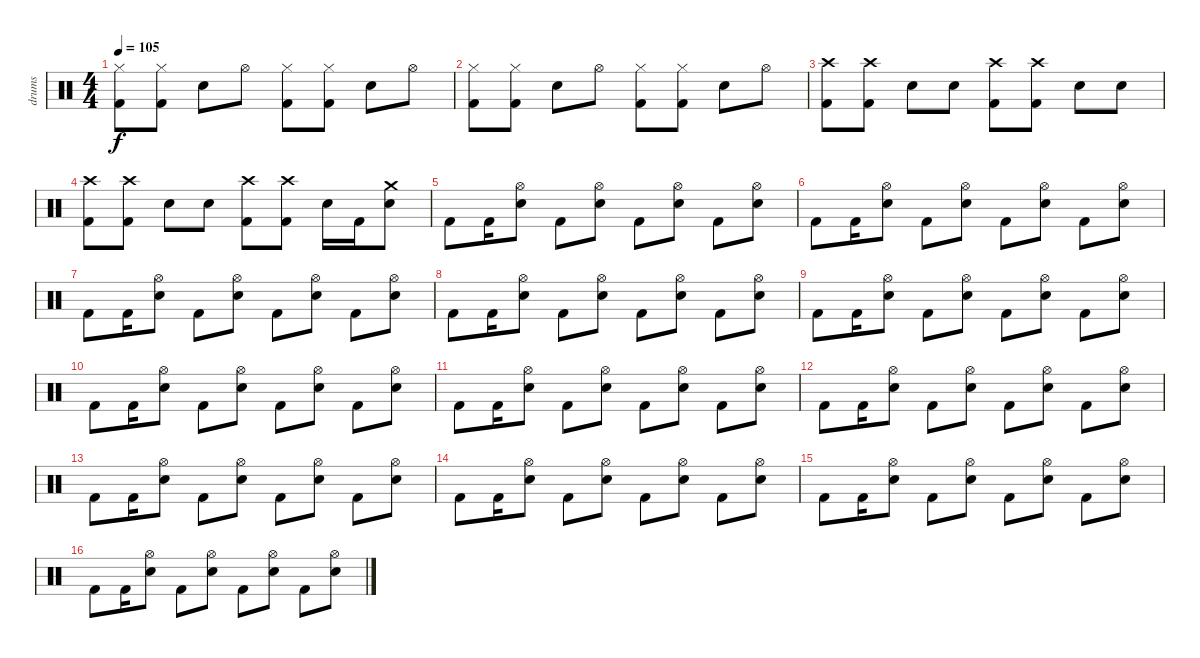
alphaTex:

\track ("drums" "drums") {instrument percussion}
\staff {score}
\articulation defaults
\ts (4 4)
\tempo 105
\clef neutral
\ks c
("Hi-Hat (closed)" "Kick (hit) 2").8{dy f} ("Hi-Hat (closed)" "Kick (hit) 2").8 "Snare (hit) 2".8 "Hi-Hat (open)".8 ("Hi-Hat (closed)" "Kick (hit) 2").8 ("Hi-Hat (closed)" "Kick (hit) 2").8 "Snare (hit) 2".8 "Hi-Hat (open)".8 |
("Hi-Hat (closed)" "Kick (hit) 2").8 ("Hi-Hat (closed)" "Kick (hit) 2").8 "Snare (hit) 2".8 "Hi-Hat (open)".8 ("Hi-Hat (closed)" "Kick (hit) 2").8 ("Hi-Hat (closed)" "Kick (hit) 2").8 "Snare (hit) 2".8 "Hi-Hat (open)".8 |
("Crash high (hit)" "Kick (hit) 2").8 ("Crash high (hit)" "Kick (hit) 2").8 "Snare (hit) 2".8 "Snare (hit) 2".8 ("Crash high (hit)" "Kick (hit) 2").8 ("Crash high (hit)" "Kick (hit) 2").8 "Snare (hit) 2".8 "Snare (hit) 2".8 |
("Crash high (hit)" "Kick (hit) 2").8 ("Crash high (hit)" "Kick (hit) 2").8 "Snare (hit) 2".8 "Snare (hit) 2".8 ("Crash high (hit)" "Kick (hit) 2").8 ("Crash high (hit)" "Kick (hit) 2").8 "Snare (hit) 2".16 "Kick (hit) 2".16 ("Crash medium (hit)" "Snare (hit) 2").8 |
"Kick (hit) 2".8 "Kick (hit) 2".16 ("Hi-Hat (open)" "Snare (hit) 2").8 "Kick (hit) 2".8 ("Hi-Hat (open)" "Snare (hit) 2").8 "Kick (hit) 2".8 ("Hi-Hat (open)" "Snare (hit) 2").8 "Kick (hit) 2".8 ("Hi-Hat (open)" "Snare (hit) 2").8 |
"Kick (hit) 2".8 "Kick (hit) 2".16 ("Hi-Hat (open)" "Snare (hit) 2").8 "Kick (hit) 2".8 ("Hi-Hat (open)" "Snare (hit) 2").8 "Kick (hit) 2".8 ("Hi-Hat (open)" "Snare (hit) 2").8 "Kick (hit) 2".8 ("Hi-Hat (open)" "Snare (hit) 2").8 |
"Kick (hit) 2".8 "Kick (hit) 2".16 ("Hi-Hat (open)" "Snare (hit) 2").8 "Kick (hit) 2".8 ("Hi-Hat (open)" "Snare (hit) 2").8 "Kick (hit) 2".8 ("Hi-Hat (open)" "Snare (hit) 2").8 "Kick (hit) 2".8 ("Hi-Hat (open)" "Snare (hit) 2").8 |
"Kick (hit) 2".8 "Kick (hit) 2".16 ("Hi-Hat (open)" "Snare (hit) 2").8 "Kick (hit) 2".8 ("Hi-Hat (open)" "Snare (hit) 2").8 "Kick (hit) 2".8 ("Hi-Hat (open)" "Snare (hit) 2").8 "Kick (hit) 2".8 ("Hi-Hat (open)" "Snare (hit) 2").8 |
"Kick (hit) 2".8 "Kick (hit) 2".16 ("Hi-Hat (open)" "Snare (hit) 2").8 "Kick (hit) 2".8 ("Hi-Hat (open)" "Snare (hit) 2").8 "Kick (hit) 2".8 ("Hi-Hat (open)" "Snare (hit) 2").8 "Kick (hit) 2".8 ("Hi-Hat (open)" "Snare (hit) 2").8 |
"Kick (hit) 2".8 "Kick (hit) 2".16 ("Hi-Hat (open)" "Snare (hit) 2").8 "Kick (hit) 2".8 ("Hi-Hat (open)" "Snare (hit) 2").8 "Kick (hit) 2".8 ("Hi-Hat (open)" "Snare (hit) 2").8 "Kick (hit) 2".8 ("Hi-Hat (open)" "Snare (hit) 2").8 |
"Kick (hit) 2".8 "Kick (hit) 2".16 ("Hi-Hat (open)" "Snare (hit) 2").8 "Kick (hit) 2".8 ("Hi-Hat (open)" "Snare (hit) 2").8 "Kick (hit) 2".8 ("Hi-Hat (open)" "Snare (hit) 2").8 "Kick (hit) 2".8 ("Hi-Hat (open)" "Snare (hit) 2").8 |
"Kick (hit) 2".8 "Kick (hit) 2".16 ("Hi-Hat (open)" "Snare (hit) 2").8 "Kick (hit) 2".8 ("Hi-Hat (open)" "Snare (hit) 2").8 "Kick (hit) 2".8 ("Hi-Hat (open)" "Snare (hit) 2").8 "Kick (hit) 2".8 ("Hi-Hat (open)" "Snare (hit) 2").8 |
"Kick (hit) 2".8 "Kick (hit) 2".16 ("Hi-Hat (open)" "Snare (hit) 2").8 "Kick (hit) 2".8 ("Hi-Hat (open)" "Snare (hit) 2").8 "Kick (hit) 2".8 ("Hi-Hat (open)" "Snare (hit) 2").8 "Kick (hit) 2".8 ("Hi-Hat (open)" "Snare (hit) 2").8 |
"Kick (hit) 2".8 "Kick (hit) 2".16 ("Hi-Hat (open)" "Snare (hit) 2").8 "Kick (hit) 2".8 ("Hi-Hat (open)" "Snare (hit) 2").8 "Kick (hit) 2".8 ("Hi-Hat (open)" "Snare (hit) 2").8 "Kick (hit) 2".8 ("Hi-Hat (open)" "Snare (hit) 2").8 |
"Kick (hit) 2".8 "Kick (hit) 2".16 ("Hi-Hat (open)" "Snare (hit) 2").8 "Kick (hit) 2".8 ("Hi-Hat (open)" "Snare (hit) 2").8 "Kick (hit) 2".8 ("Hi-Hat (open)" "Snare (hit) 2").8 "Kick (hit) 2".8 ("Hi-Hat (open)" "Snare (hit) 2").8 |
"Kick (hit) 2".8 "Kick (hit) 2".16 ("Hi-Hat (open)" "Snare (hit) 2").8 "Kick (hit) 2".8 ("Hi-Hat (open)" "Snare (hit) 2").8 "Kick (hit) 2".8 ("Hi-Hat (open)" "Snare (hit) 2").8 "Kick (hit) 2".8 ("Hi-Hat (open)" "Snare (hit) 2").8
